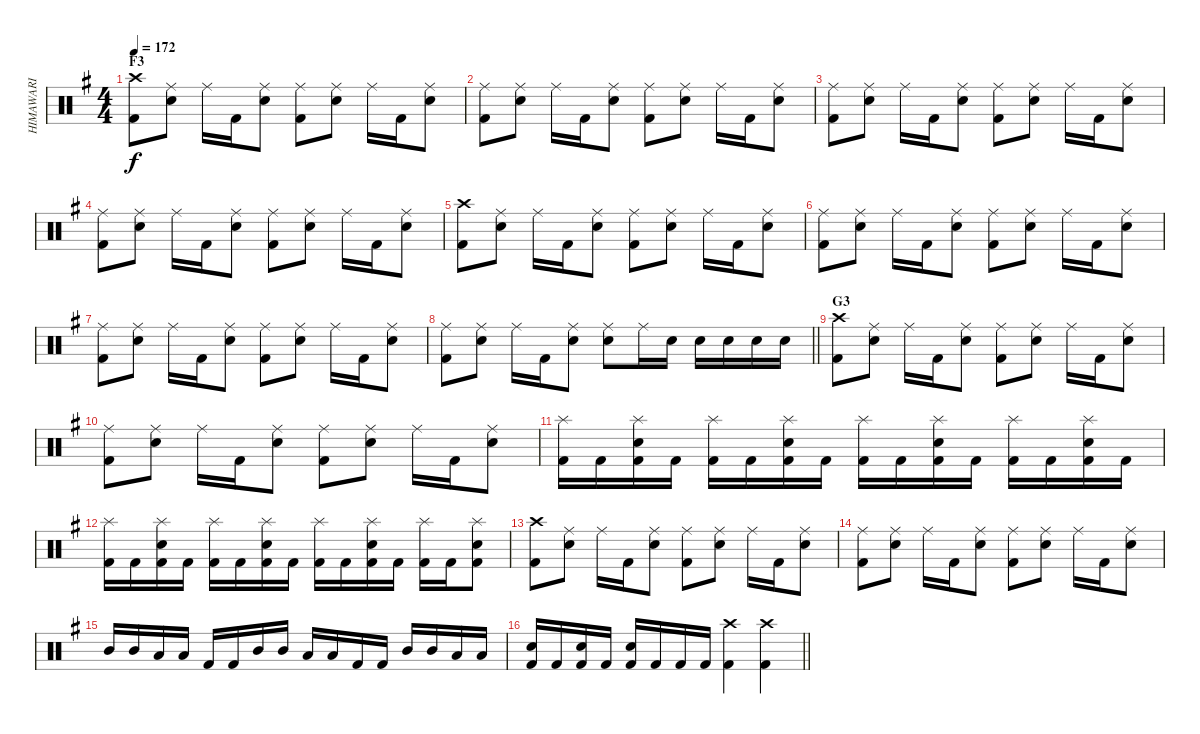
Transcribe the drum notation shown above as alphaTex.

\track ("HIMAWARI" "HIMAWARI") {instrument percussion}
\staff {score}
\articulation defaults
\ts (4 4)
\section ("" "F3")
\tempo 172
\clef neutral
\ks g
("Crash high (hit)" "Kick (hit) 2").8{dy f} ("Ride (middle)" "Snare (hit) 2").8 "Ride (middle)".16 "Kick (hit) 2".16 ("Ride (middle)" "Snare (hit) 2").8 ("Ride (middle)" "Kick (hit) 2").8 ("Ride (middle)" "Snare (hit) 2").8 "Ride (middle)".16 "Kick (hit) 2".16 ("Ride (middle)" "Snare (hit) 2").8 |
("Ride (middle)" "Kick (hit) 2").8 ("Ride (middle)" "Snare (hit) 2").8 "Ride (middle)".16 "Kick (hit) 2".16 ("Ride (middle)" "Snare (hit) 2").8 ("Ride (middle)" "Kick (hit) 2").8 ("Ride (middle)" "Snare (hit) 2").8 "Ride (middle)".16 "Kick (hit) 2".16 ("Ride (middle)" "Snare (hit) 2").8 |
("Ride (middle)" "Kick (hit) 2").8 ("Ride (middle)" "Snare (hit) 2").8 "Ride (middle)".16 "Kick (hit) 2".16 ("Ride (middle)" "Snare (hit) 2").8 ("Ride (middle)" "Kick (hit) 2").8 ("Ride (middle)" "Snare (hit) 2").8 "Ride (middle)".16 "Kick (hit) 2".16 ("Ride (middle)" "Snare (hit) 2").8 |
("Ride (middle)" "Kick (hit) 2").8 ("Ride (middle)" "Snare (hit) 2").8 "Ride (middle)".16 "Kick (hit) 2".16 ("Ride (middle)" "Snare (hit) 2").8 ("Ride (middle)" "Kick (hit) 2").8 ("Ride (middle)" "Snare (hit) 2").8 "Ride (middle)".16 "Kick (hit) 2".16 ("Ride (middle)" "Snare (hit) 2").8 |
("Crash high (hit)" "Kick (hit) 2").8 ("Ride (middle)" "Snare (hit) 2").8 "Ride (middle)".16 "Kick (hit) 2".16 ("Ride (middle)" "Snare (hit) 2").8 ("Ride (middle)" "Kick (hit) 2").8 ("Ride (middle)" "Snare (hit) 2").8 "Ride (middle)".16 "Kick (hit) 2".16 ("Ride (middle)" "Snare (hit) 2").8 |
("Ride (middle)" "Kick (hit) 2").8 ("Ride (middle)" "Snare (hit) 2").8 "Ride (middle)".16 "Kick (hit) 2".16 ("Ride (middle)" "Snare (hit) 2").8 ("Ride (middle)" "Kick (hit) 2").8 ("Ride (middle)" "Snare (hit) 2").8 "Ride (middle)".16 "Kick (hit) 2".16 ("Ride (middle)" "Snare (hit) 2").8 |
("Ride (middle)" "Kick (hit) 2").8 ("Ride (middle)" "Snare (hit) 2").8 "Ride (middle)".16 "Kick (hit) 2".16 ("Ride (middle)" "Snare (hit) 2").8 ("Ride (middle)" "Kick (hit) 2").8 ("Ride (middle)" "Snare (hit) 2").8 "Ride (middle)".16 "Kick (hit) 2".16 ("Ride (middle)" "Snare (hit) 2").8 |
\barLineRight lightlight
("Ride (middle)" "Kick (hit) 2").8 ("Ride (middle)" "Snare (hit) 2").8 "Ride (middle)".16 "Kick (hit) 2".16 ("Ride (middle)" "Snare (hit) 2").8 ("Ride (middle)" "Snare (hit) 2").8 "Ride (middle)".16 "Snare (hit) 2".16 "Snare (hit) 2".16 "Snare (hit) 2".16 "Snare (hit) 2".16 "Snare (hit) 2".16 |
\section ("" "G3")
("Crash high (hit)" "Kick (hit) 2").8 ("Ride (middle)" "Snare (hit) 2").8 "Ride (middle)".16 "Kick (hit) 2".16 ("Ride (middle)" "Snare (hit) 2").8 ("Ride (middle)" "Kick (hit) 2").8 ("Ride (middle)" "Snare (hit) 2").8 "Ride (middle)".16 "Kick (hit) 2".16 ("Ride (middle)" "Snare (hit) 2").8 |
("Ride (middle)" "Kick (hit) 2").8 ("Ride (middle)" "Snare (hit) 2").8 "Ride (middle)".16 "Kick (hit) 2".16 ("Ride (middle)" "Snare (hit) 2").8 ("Ride (middle)" "Kick (hit) 2").8 ("Ride (middle)" "Snare (hit) 2").8 "Ride (middle)".16 "Kick (hit) 2".16 ("Ride (middle)" "Snare (hit) 2").8 |
("Splash (hit)" "Kick (hit) 2").16 "Kick (hit) 2".16 ("Splash (hit)" "Kick (hit) 2" "Snare (hit) 2").16 "Kick (hit) 2".16 ("Splash (hit)" "Kick (hit) 2").16 "Kick (hit) 2".16 ("Splash (hit)" "Kick (hit) 2" "Snare (hit) 2").16 "Kick (hit) 2".16 ("Splash (hit)" "Kick (hit) 2").16 "Kick (hit) 2".16 ("Splash (hit)" "Kick (hit) 2" "Snare (hit) 2").16 "Kick (hit) 2".16 ("Splash (hit)" "Kick (hit) 2").16 "Kick (hit) 2".16 ("Splash (hit)" "Kick (hit) 2" "Snare (hit) 2").16 "Kick (hit) 2".16 |
("Splash (hit)" "Kick (hit) 2").16 "Kick (hit) 2".16 ("Splash (hit)" "Kick (hit) 2" "Snare (hit) 2").16 "Kick (hit) 2".16 ("Splash (hit)" "Kick (hit) 2").16 "Kick (hit) 2".16 ("Splash (hit)" "Kick (hit) 2" "Snare (hit) 2").16 "Kick (hit) 2".16 ("Splash (hit)" "Kick (hit) 2").16 "Kick (hit) 2".16 ("Splash (hit)" "Kick (hit) 2" "Snare (hit) 2").16 "Kick (hit) 2".16 ("Splash (hit)" "Kick (hit) 2").16 "Kick (hit) 2".16 ("Splash (hit)" "Kick (hit) 2" "Snare (hit) 2").8 |
("Crash high (hit)" "Kick (hit) 2").8 ("Ride (middle)" "Snare (hit) 2").8 "Ride (middle)".16 "Kick (hit) 2".16 ("Ride (middle)" "Snare (hit) 2").8 ("Ride (middle)" "Kick (hit) 2").8 ("Ride (middle)" "Snare (hit) 2").8 "Ride (middle)".16 "Kick (hit) 2".16 ("Ride (middle)" "Snare (hit) 2").8 |
("Ride (middle)" "Kick (hit) 2").8 ("Ride (middle)" "Snare (hit) 2").8 "Ride (middle)".16 "Kick (hit) 2".16 ("Ride (middle)" "Snare (hit) 2").8 ("Ride (middle)" "Kick (hit) 2").8 ("Ride (middle)" "Snare (hit) 2").8 "Ride (middle)".16 "Kick (hit) 2".16 ("Ride (middle)" "Snare (hit) 2").8 |
"Mid Tom (hit)".16 "Mid Tom (hit)".16 "Low Tom (hit)".16 "Low Tom (hit)".16 "Kick (hit) 2".16 "Kick (hit) 2".16 "Mid Tom (hit)".16 "Mid Tom (hit)".16 "Low Tom (hit)".16 "Low Tom (hit)".16 "Kick (hit) 2".16 "Kick (hit) 2".16 "Mid Tom (hit)".16 "Mid Tom (hit)".16 "Low Tom (hit)".16 "Low Tom (hit)".16 |
\barLineRight lightlight
("Snare (hit) 2" "Kick (hit) 2").16 "Kick (hit) 2".16 ("Snare (hit) 2" "Kick (hit) 2").16 "Kick (hit) 2".16 ("Snare (hit) 2" "Kick (hit) 2").16 "Kick (hit) 2".16 "Kick (hit) 2".16 "Kick (hit) 2".16 ("Crash high (hit)" "Kick (hit) 2").4 ("Crash high (hit)" "Kick (hit) 2").4
